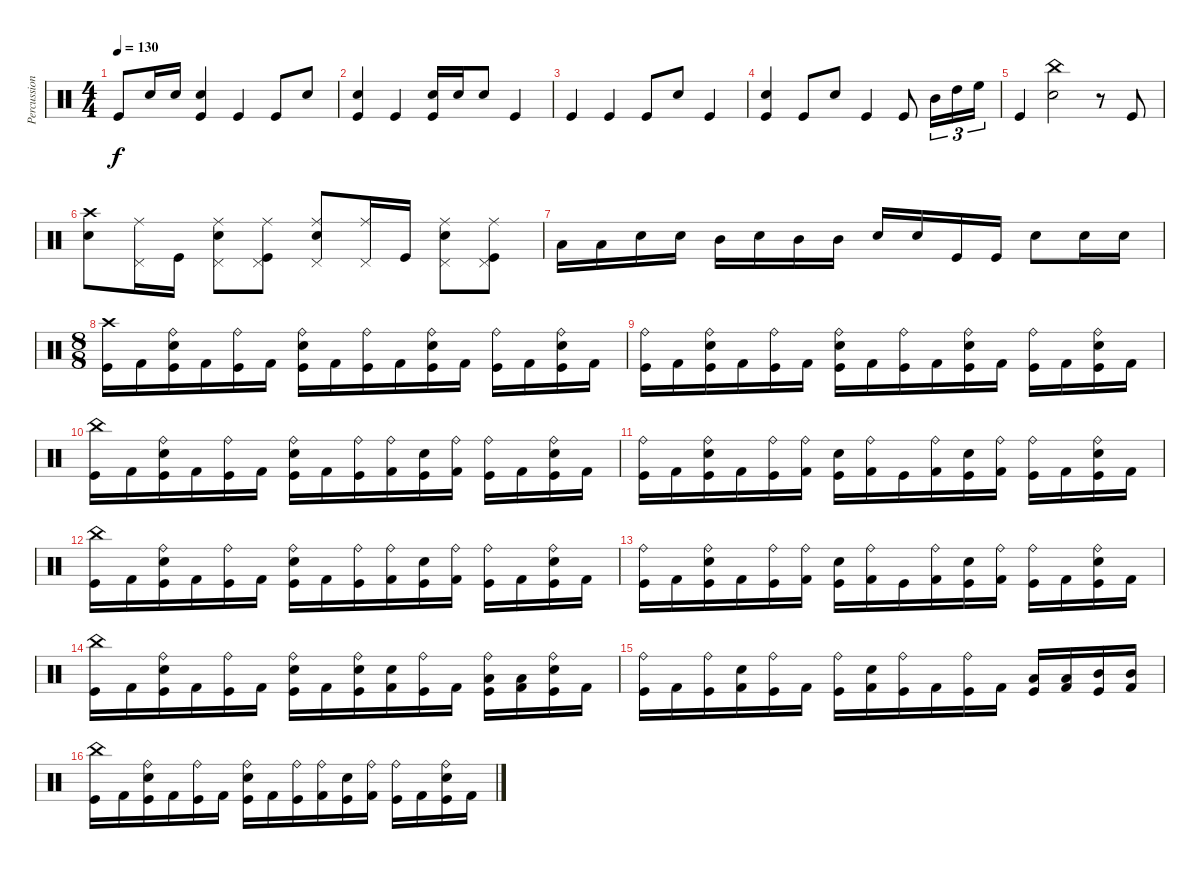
\track ("Percussion" "Percussion") {instrument percussion}
\staff {score}
\articulation defaults
\ts (4 4)
\tempo 130
\clef neutral
\ks c "Kick (hit)".8{dy f} "Snare (hit) 2".16 "Snare (hit) 2".16
("Snare (hit) 2" "Kick (hit)").4 "Kick (hit)".4 "Kick (hit)".8 "Snare (hit) 2".8 |
("Snare (hit) 2" "Kick (hit)").4 "Kick (hit)".4 ("Snare (hit) 2" "Kick (hit)").16 "Snare (hit) 2".16 "Snare (hit) 2".8 "Kick (hit)".4 |
"Kick (hit)".4 "Kick (hit)".4 "Kick (hit)".8 "Snare (hit) 2".8 "Kick (hit)".4 |
("Snare (hit) 2" "Kick (hit)").4 "Kick (hit)".8 "Snare (hit) 2".8 "Kick (hit)".4 "Kick (hit)".8 "Mid Tom (hit)".16{tu (3 2)} "High Tom (hit)".16{tu (3 2)} "High Floor Tom (hit)".16{tu (3 2)} |
"Kick (hit)".4 ("Snare (hit) 2" "China (hit)").2 r.8 "Kick (hit)".8 |
("Snare (hit) 2" "Crash high (hit)").8 ("Pedal Hi-Hat (hit)" "Ride (middle)").16 "Kick (hit)".16 ("Pedal Hi-Hat (hit)" "Ride (middle)" "Snare (hit) 2").8 ("Pedal Hi-Hat (hit)" "Ride (middle)" "Kick (hit)").8 ("Pedal Hi-Hat (hit)" "Ride (middle)" "Snare (hit) 2").8 ("Pedal Hi-Hat (hit)" "Ride (middle)").16 "Kick (hit)".16 ("Pedal Hi-Hat (hit)" "Ride (middle)" "Snare (hit) 2").8 ("Pedal Hi-Hat (hit)" "Ride (middle)" "Kick (hit)").8 |
"Low Tom (hit)".16 "Low Tom (hit)".16 "Electric Snare (hit)".16 "Electric Snare (hit)".16 "Mid Tom (hit)".16 "Electric Snare (hit)".16 "Mid Tom (hit)".16 "Mid Tom (hit)".16 "Electric Snare (hit)".16 "Electric Snare (hit)".16 "Kick (hit)".16 "Kick (hit)".16 "Electric Snare (hit)".8 "Snare (hit) 2".16 "Snare (hit) 2".16 |
\ts (8 8)
("Crash high (hit)" "Kick (hit)").16 "Kick (hit) 2".16 ("Ride (bell)" "Electric Snare (hit)" "Kick (hit)").16 "Kick (hit) 2".16 ("Ride (bell)" "Kick (hit)").16 "Kick (hit) 2".16 ("Ride (bell)" "Electric Snare (hit)" "Kick (hit)").16 "Kick (hit) 2".16 ("Ride (bell)" "Kick (hit)").16 "Kick (hit) 2".16 ("Ride (bell)" "Electric Snare (hit)" "Kick (hit)").16 "Kick (hit) 2".16 ("Ride (bell)" "Kick (hit)").16 "Kick (hit) 2".16 ("Ride (bell)" "Electric Snare (hit)" "Kick (hit)").16 "Kick (hit) 2".16 |
("Ride (bell)" "Kick (hit)").16 "Kick (hit) 2".16 ("Ride (bell)" "Electric Snare (hit)" "Kick (hit)").16 "Kick (hit) 2".16 ("Ride (bell)" "Kick (hit)").16 "Kick (hit) 2".16 ("Ride (bell)" "Electric Snare (hit)" "Kick (hit)").16 "Kick (hit) 2".16 ("Ride (bell)" "Kick (hit)").16 "Kick (hit) 2".16 ("Ride (bell)" "Electric Snare (hit)" "Kick (hit)").16 "Kick (hit) 2".16 ("Ride (bell)" "Kick (hit)").16 "Kick (hit) 2".16 ("Ride (bell)" "Electric Snare (hit)" "Kick (hit)").16 "Kick (hit) 2".16 |
("China (hit)" "Kick (hit)").16 "Kick (hit) 2".16 ("Ride (bell)" "Electric Snare (hit)" "Kick (hit)").16 "Kick (hit) 2".16 ("Ride (bell)" "Kick (hit)").16 "Kick (hit) 2".16 ("Ride (bell)" "Electric Snare (hit)" "Kick (hit)").16 "Kick (hit) 2".16 ("Ride (bell)" "Kick (hit)").16 ("Ride (bell)" "Kick (hit) 2").16 ("Electric Snare (hit)" "Kick (hit)").16 ("Ride (bell)" "Kick (hit) 2").16 ("Ride (bell)" "Kick (hit)").16 "Kick (hit) 2".16 ("Ride (bell)" "Electric Snare (hit)" "Kick (hit)").16 "Kick (hit) 2".16 |
("Ride (bell)" "Kick (hit)").16 "Kick (hit) 2".16 ("Ride (bell)" "Electric Snare (hit)" "Kick (hit)").16 "Kick (hit) 2".16 ("Ride (bell)" "Kick (hit)").16 ("Ride (bell)" "Kick (hit) 2").16 ("Electric Snare (hit)" "Kick (hit)").16 ("Ride (bell)" "Kick (hit) 2").16 "Kick (hit)".16 ("Ride (bell)" "Kick (hit) 2").16 ("Electric Snare (hit)" "Kick (hit)").16 ("Ride (bell)" "Kick (hit) 2").16 ("Ride (bell)" "Kick (hit)").16 "Kick (hit) 2".16 ("Ride (bell)" "Electric Snare (hit)" "Kick (hit)").16 "Kick (hit) 2".16 |
("China (hit)" "Kick (hit)").16 "Kick (hit) 2".16 ("Ride (bell)" "Electric Snare (hit)" "Kick (hit)").16 "Kick (hit) 2".16 ("Ride (bell)" "Kick (hit)").16 "Kick (hit) 2".16 ("Ride (bell)" "Electric Snare (hit)" "Kick (hit)").16 "Kick (hit) 2".16 ("Ride (bell)" "Kick (hit)").16 ("Ride (bell)" "Kick (hit) 2").16 ("Electric Snare (hit)" "Kick (hit)").16 ("Ride (bell)" "Kick (hit) 2").16 ("Ride (bell)" "Kick (hit)").16 "Kick (hit) 2".16 ("Ride (bell)" "Electric Snare (hit)" "Kick (hit)").16 "Kick (hit) 2".16 |
("Ride (bell)" "Kick (hit)").16 "Kick (hit) 2".16 ("Ride (bell)" "Electric Snare (hit)" "Kick (hit)").16 "Kick (hit) 2".16 ("Ride (bell)" "Kick (hit)").16 ("Ride (bell)" "Kick (hit) 2").16 ("Electric Snare (hit)" "Kick (hit)").16 ("Ride (bell)" "Kick (hit) 2").16 "Kick (hit)".16 ("Ride (bell)" "Kick (hit) 2").16 ("Electric Snare (hit)" "Kick (hit)").16 ("Ride (bell)" "Kick (hit) 2").16 ("Ride (bell)" "Kick (hit)").16 "Kick (hit) 2".16 ("Ride (bell)" "Electric Snare (hit)" "Kick (hit)").16 "Kick (hit) 2".16 |
("China (hit)" "Kick (hit)").16 "Kick (hit) 2".16 ("Ride (bell)" "Electric Snare (hit)" "Kick (hit)").16 "Kick (hit) 2".16 ("Ride (bell)" "Kick (hit)").16 "Kick (hit) 2".16 ("Ride (bell)" "Electric Snare (hit)" "Kick (hit)").16 "Kick (hit) 2".16 ("Ride (bell)" "Electric Snare (hit)" "Kick (hit)").16 ("Electric Snare (hit)" "Kick (hit) 2").16 ("Ride (bell)" "Kick (hit)").16 "Kick (hit) 2".16 ("Ride (bell)" "Low Tom (hit)" "Kick (hit)").16 ("Low Tom (hit)" "Kick (hit) 2").16 ("Ride (bell)" "Electric Snare (hit)" "Kick (hit)").16 "Kick (hit) 2".16 |
("Ride (bell)" "Kick (hit)").16 "Kick (hit) 2".16 ("Ride (bell)" "Kick (hit)").16 ("Electric Snare (hit)" "Kick (hit) 2").16 ("Ride (bell)" "Kick (hit)").16 "Kick (hit) 2".16 ("Ride (bell)" "Kick (hit)").16 ("Electric Snare (hit)" "Kick (hit) 2").16 ("Ride (bell)" "Kick (hit)").16 "Kick (hit) 2".16 ("Ride (bell)" "Kick (hit)").16 "Kick (hit) 2".16 ("Low Tom (hit)" "Kick (hit)").16 ("Low Tom (hit)" "Kick (hit) 2").16 ("Mid Tom (hit)" "Kick (hit)").16 ("Mid Tom (hit)" "Kick (hit) 2").16 |
("China (hit)" "Kick (hit)").16 "Kick (hit) 2".16 ("Ride (bell)" "Electric Snare (hit)" "Kick (hit)").16 "Kick (hit) 2".16 ("Ride (bell)" "Kick (hit)").16 "Kick (hit) 2".16 ("Ride (bell)" "Electric Snare (hit)" "Kick (hit)").16 "Kick (hit) 2".16 ("Ride (bell)" "Kick (hit)").16 ("Ride (bell)" "Kick (hit) 2").16 ("Electric Snare (hit)" "Kick (hit)").16 ("Ride (bell)" "Kick (hit) 2").16 ("Ride (bell)" "Kick (hit)").16 "Kick (hit) 2".16 ("Ride (bell)" "Electric Snare (hit)" "Kick (hit)").16 "Kick (hit) 2".16
